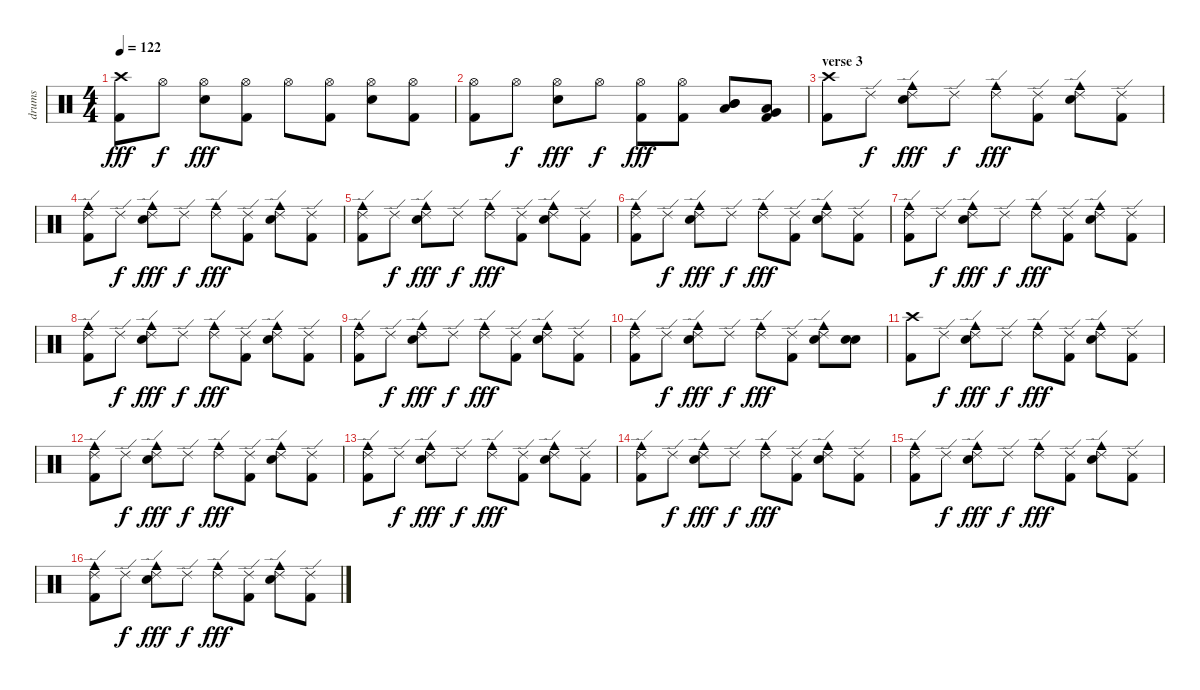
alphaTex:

\track ("drums" "drums") {instrument percussion}
\staff {score}
\articulation defaults
\ts (4 4)
\tempo 122
\clef neutral
\ks c
("Kick (hit) 2" "Crash high (hit)").8{dy fff} "Hi-Hat (open)".8{dy f} ("Hi-Hat (open)" "Electric Snare (hit)").8{dy fff} ("Hi-Hat (open)" "Kick (hit) 2").8 "Hi-Hat (open)".8 ("Kick (hit) 2" "Hi-Hat (open)").8 ("Electric Snare (hit)" "Hi-Hat (open)").8 ("Hi-Hat (open)" "Kick (hit) 2").8 |
("Kick (hit) 2" "Hi-Hat (open)").8 "Hi-Hat (open)".8{dy f} ("Hi-Hat (open)" "Electric Snare (hit)").8{dy fff} "Hi-Hat (open)".8{dy f} ("Hi-Hat (open)" "Kick (hit) 2").8{dy fff} ("Hi-Hat (open)" "Kick (hit) 2").8 ("Mid Tom (hit)" "Mid Tom (hit)" "Low Tom (hit)").8 ("Low Tom (hit)" "Very Low Tom (hit)" "Kick (hit) 2").8 |
\section ("" "verse 3")
("Kick (hit) 2" "Crash high (hit)").8 "Ride (edge) 2".8{dy f} ("Cowbell medium (hit)" "Electric Snare (hit)" "Ride (edge) 2").8{dy fff} "Ride (edge) 2".8{dy f} ("Cowbell medium (hit)" "Ride (edge) 2").8{dy fff} ("Ride (edge) 2" "Kick (hit) 2").8 ("Cowbell medium (hit)" "Electric Snare (hit)" "Ride (edge) 2").8 ("Ride (edge) 2" "Kick (hit) 2").8 |
("Ride (edge) 2" "Kick (hit) 2" "Cowbell medium (hit)").8 "Ride (edge) 2".8{dy f} ("Ride (edge) 2" "Electric Snare (hit)" "Cowbell medium (hit)").8{dy fff} "Ride (edge) 2".8{dy f} ("Ride (edge) 2" "Cowbell medium (hit)").8{dy fff} ("Kick (hit) 2" "Ride (edge) 2").8 ("Electric Snare (hit)" "Cowbell medium (hit)" "Ride (edge) 2").8 ("Ride (edge) 2" "Kick (hit) 2").8 |
("Kick (hit) 2" "Cowbell medium (hit)" "Ride (edge) 2").8 "Ride (edge) 2".8{dy f} ("Ride (edge) 2" "Electric Snare (hit)" "Cowbell medium (hit)").8{dy fff} "Ride (edge) 2".8{dy f} ("Ride (edge) 2" "Cowbell medium (hit)").8{dy fff} ("Kick (hit) 2" "Ride (edge) 2").8 ("Cowbell medium (hit)" "Electric Snare (hit)" "Ride (edge) 2").8 ("Ride (edge) 2" "Kick (hit) 2").8 |
("Kick (hit) 2" "Cowbell medium (hit)" "Ride (edge) 2").8 "Ride (edge) 2".8{dy f} ("Ride (edge) 2" "Cowbell medium (hit)" "Electric Snare (hit)").8{dy fff} "Ride (edge) 2".8{dy f} ("Cowbell medium (hit)" "Ride (edge) 2").8{dy fff} ("Kick (hit) 2" "Ride (edge) 2").8 ("Ride (edge) 2" "Electric Snare (hit)" "Cowbell medium (hit)").8 ("Kick (hit) 2" "Ride (edge) 2").8 |
("Cowbell medium (hit)" "Kick (hit) 2" "Ride (edge) 2").8 "Ride (edge) 2".8{dy f} ("Electric Snare (hit)" "Cowbell medium (hit)" "Ride (edge) 2").8{dy fff} "Ride (edge) 2".8{dy f} ("Ride (edge) 2" "Cowbell medium (hit)").8{dy fff} ("Ride (edge) 2" "Kick (hit) 2").8 ("Electric Snare (hit)" "Ride (edge) 2" "Cowbell medium (hit)").8 ("Ride (edge) 2" "Kick (hit) 2").8 |
("Ride (edge) 2" "Kick (hit) 2" "Cowbell medium (hit)").8 "Ride (edge) 2".8{dy f} ("Ride (edge) 2" "Electric Snare (hit)" "Cowbell medium (hit)").8{dy fff} "Ride (edge) 2".8{dy f} ("Ride (edge) 2" "Cowbell medium (hit)").8{dy fff} ("Ride (edge) 2" "Kick (hit) 2").8 ("Ride (edge) 2" "Cowbell medium (hit)" "Electric Snare (hit)").8 ("Kick (hit) 2" "Ride (edge) 2").8 |
("Cowbell medium (hit)" "Ride (edge) 2" "Kick (hit) 2").8 "Ride (edge) 2".8{dy f} ("Electric Snare (hit)" "Ride (edge) 2" "Cowbell medium (hit)").8{dy fff} "Ride (edge) 2".8{dy f} ("Ride (edge) 2" "Cowbell medium (hit)").8{dy fff} ("Kick (hit) 2" "Ride (edge) 2").8 ("Electric Snare (hit)" "Ride (edge) 2" "Cowbell medium (hit)").8 ("Kick (hit) 2" "Ride (edge) 2").8 |
("Ride (edge) 2" "Cowbell medium (hit)" "Kick (hit) 2").8 "Ride (edge) 2".8{dy f} ("Electric Snare (hit)" "Ride (edge) 2" "Cowbell medium (hit)").8{dy fff} "Ride (edge) 2".8{dy f} ("Cowbell medium (hit)" "Ride (edge) 2").8{dy fff} ("Kick (hit) 2" "Ride (edge) 2").8 ("Ride (edge) 2" "Electric Snare (hit)" "Cowbell medium (hit)").8 ("Electric Snare (hit)" "Electric Snare (hit)").8 |
("Kick (hit) 2" "Crash high (hit)").8 "Ride (edge) 2".8{dy f} ("Ride (edge) 2" "Cowbell medium (hit)" "Electric Snare (hit)").8{dy fff} "Ride (edge) 2".8{dy f} ("Ride (edge) 2" "Cowbell medium (hit)").8{dy fff} ("Ride (edge) 2" "Kick (hit) 2").8 ("Ride (edge) 2" "Cowbell medium (hit)" "Electric Snare (hit)").8 ("Ride (edge) 2" "Kick (hit) 2").8 |
("Ride (edge) 2" "Kick (hit) 2" "Cowbell medium (hit)").8 "Ride (edge) 2".8{dy f} ("Ride (edge) 2" "Electric Snare (hit)" "Cowbell medium (hit)").8{dy fff} "Ride (edge) 2".8{dy f} ("Ride (edge) 2" "Cowbell medium (hit)").8{dy fff} ("Kick (hit) 2" "Ride (edge) 2").8 ("Ride (edge) 2" "Cowbell medium (hit)" "Electric Snare (hit)").8 ("Kick (hit) 2" "Ride (edge) 2").8 |
("Ride (edge) 2" "Kick (hit) 2" "Cowbell medium (hit)").8 "Ride (edge) 2".8{dy f} ("Ride (edge) 2" "Electric Snare (hit)" "Cowbell medium (hit)").8{dy fff} "Ride (edge) 2".8{dy f} ("Ride (edge) 2" "Cowbell medium (hit)").8{dy fff} ("Kick (hit) 2" "Ride (edge) 2").8 ("Ride (edge) 2" "Electric Snare (hit)" "Cowbell medium (hit)").8 ("Ride (edge) 2" "Kick (hit) 2").8 |
("Kick (hit) 2" "Cowbell medium (hit)" "Ride (edge) 2").8 "Ride (edge) 2".8{dy f} ("Ride (edge) 2" "Electric Snare (hit)" "Cowbell medium (hit)").8{dy fff} "Ride (edge) 2".8{dy f} ("Cowbell medium (hit)" "Ride (edge) 2").8{dy fff} ("Ride (edge) 2" "Kick (hit) 2").8 ("Cowbell medium (hit)" "Electric Snare (hit)" "Ride (edge) 2").8 ("Ride (edge) 2" "Kick (hit) 2").8 |
("Ride (edge) 2" "Cowbell medium (hit)" "Kick (hit) 2").8 "Ride (edge) 2".8{dy f} ("Ride (edge) 2" "Cowbell medium (hit)" "Electric Snare (hit)").8{dy fff} "Ride (edge) 2".8{dy f} ("Ride (edge) 2" "Cowbell medium (hit)").8{dy fff} ("Kick (hit) 2" "Ride (edge) 2").8 ("Cowbell medium (hit)" "Electric Snare (hit)" "Ride (edge) 2").8 ("Ride (edge) 2" "Kick (hit) 2").8 |
("Cowbell medium (hit)" "Kick (hit) 2" "Ride (edge) 2").8 "Ride (edge) 2".8{dy f} ("Ride (edge) 2" "Cowbell medium (hit)" "Electric Snare (hit)").8{dy fff} "Ride (edge) 2".8{dy f} ("Cowbell medium (hit)" "Ride (edge) 2").8{dy fff} ("Ride (edge) 2" "Kick (hit) 2").8 ("Electric Snare (hit)" "Cowbell medium (hit)" "Ride (edge) 2").8 ("Ride (edge) 2" "Kick (hit) 2").8
